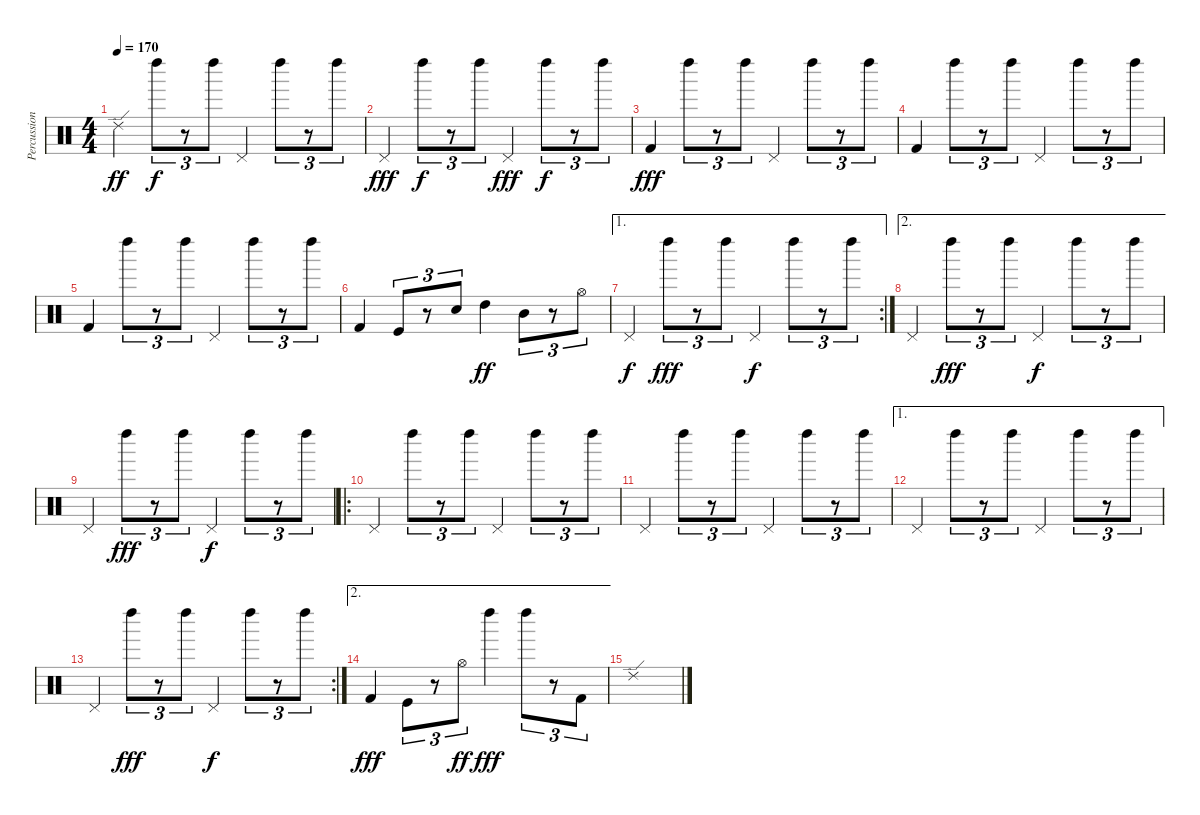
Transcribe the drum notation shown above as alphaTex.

\track ("Percussions" "Percussion") {instrument percussion}
\staff {score}
\articulation defaults
\ts (4 4)
\tempo 170
\clef neutral
\ks c "Ride (edge) 2".4{dy ff} "Left Maraca (hit)".8{tu (3 2) dy f}
r.8{tu (3 2)} "Left Maraca (hit)".8{tu (3 2)} "Pedal Hi-Hat (hit)".4 "Left Maraca (hit)".8{tu (3 2)} r.8{tu (3 2)} "Left Maraca (hit)".8{tu (3 2)} |
"Pedal Hi-Hat (hit)".4{dy fff} "Left Maraca (hit)".8{tu (3 2) dy f} r.8{tu (3 2)} "Left Maraca (hit)".8{tu (3 2)} "Pedal Hi-Hat (hit)".4{dy fff} "Left Maraca (hit)".8{tu (3 2) dy f} r.8{tu (3 2)} "Left Maraca (hit)".8{tu (3 2)} |
"Kick (hit) 2".4{dy fff} "Left Maraca (hit)".8{tu (3 2)} r.8{tu (3 2)} "Left Maraca (hit)".8{tu (3 2)} "Pedal Hi-Hat (hit)".4 "Left Maraca (hit)".8{tu (3 2)} r.8{tu (3 2)} "Left Maraca (hit)".8{tu (3 2)} |
"Kick (hit) 2".4 "Left Maraca (hit)".8{tu (3 2)} r.8{tu (3 2)} "Left Maraca (hit)".8{tu (3 2)} "Pedal Hi-Hat (hit)".4 "Left Maraca (hit)".8{tu (3 2)} r.8{tu (3 2)} "Left Maraca (hit)".8{tu (3 2)} |
"Kick (hit) 2".4 "Left Maraca (hit)".8{tu (3 2)} r.8{tu (3 2)} "Left Maraca (hit)".8{tu (3 2)} "Pedal Hi-Hat (hit)".4 "Left Maraca (hit)".8{tu (3 2)} r.8{tu (3 2)} "Left Maraca (hit)".8{tu (3 2)} |
"Kick (hit) 2".4 "Kick (hit)".8{tu (3 2)} r.8{tu (3 2)} "Electric Snare (hit)".8{tu (3 2)} "High Tom (hit)".4{dy ff} "Mid Tom (hit)".8{tu (3 2)} r.8{tu (3 2)} "Hi-Hat (open)".8{tu (3 2)} |
\ae 1
\rc 2 "Pedal Hi-Hat (hit)".4{dy f} "Left Maraca (hit)".8{tu (3 2) dy fff}
r.8{tu (3 2)} "Left Maraca (hit)".8{tu (3 2)} "Pedal Hi-Hat (hit)".4{dy f} "Left Maraca (hit)".8{tu (3 2)} r.8{tu (3 2)} "Left Maraca (hit)".8{tu (3 2)} |
\ae 2 "Pedal Hi-Hat (hit)".4 "Left Maraca (hit)".8{tu (3 2) dy fff}
r.8{tu (3 2)} "Left Maraca (hit)".8{tu (3 2)} "Pedal Hi-Hat (hit)".4{dy f} "Left Maraca (hit)".8{tu (3 2)} r.8{tu (3 2)} "Left Maraca (hit)".8{tu (3 2)} |
"Pedal Hi-Hat (hit)".4 "Left Maraca (hit)".8{tu (3 2) dy fff} r.8{tu (3 2)} "Left Maraca (hit)".8{tu (3 2)} "Pedal Hi-Hat (hit)".4{dy f} "Left Maraca (hit)".8{tu (3 2)} r.8{tu (3 2)} "Left Maraca (hit)".8{tu (3 2)} |
\ro "Pedal Hi-Hat (hit)".4 "Left Maraca (hit)".8{tu (3 2)}
r.8{tu (3 2)} "Left Maraca (hit)".8{tu (3 2)} "Pedal Hi-Hat (hit)".4 "Left Maraca (hit)".8{tu (3 2)} r.8{tu (3 2)} "Left Maraca (hit)".8{tu (3 2)} |
"Pedal Hi-Hat (hit)".4 "Left Maraca (hit)".8{tu (3 2)} r.8{tu (3 2)} "Left Maraca (hit)".8{tu (3 2)} "Pedal Hi-Hat (hit)".4 "Left Maraca (hit)".8{tu (3 2)} r.8{tu (3 2)} "Left Maraca (hit)".8{tu (3 2)} |
\ae 1 "Pedal Hi-Hat (hit)".4 "Left Maraca (hit)".8{tu (3 2)}
r.8{tu (3 2)} "Left Maraca (hit)".8{tu (3 2)} "Pedal Hi-Hat (hit)".4 "Left Maraca (hit)".8{tu (3 2)} r.8{tu (3 2)} "Left Maraca (hit)".8{tu (3 2)} |
\rc 2 "Pedal Hi-Hat (hit)".4 "Left Maraca (hit)".8{tu (3 2) dy fff}
r.8{tu (3 2)} "Left Maraca (hit)".8{tu (3 2)} "Pedal Hi-Hat (hit)".4{dy f} "Left Maraca (hit)".8{tu (3 2)} r.8{tu (3 2)} "Left Maraca (hit)".8{tu (3 2)} |
\ae 2 "Kick (hit) 2".4{dy fff} "Kick (hit)".8{tu (3 2)}
r.8{tu (3 2)} "Hi-Hat (open)".8{tu (3 2) dy ff} "Left Maraca (hit)".4{dy fff} "Left Maraca (hit)".8{tu (3 2)} r.8{tu (3 2)} "Kick (hit) 2".8{tu (3 2)} |
"Ride (edge) 2".1
